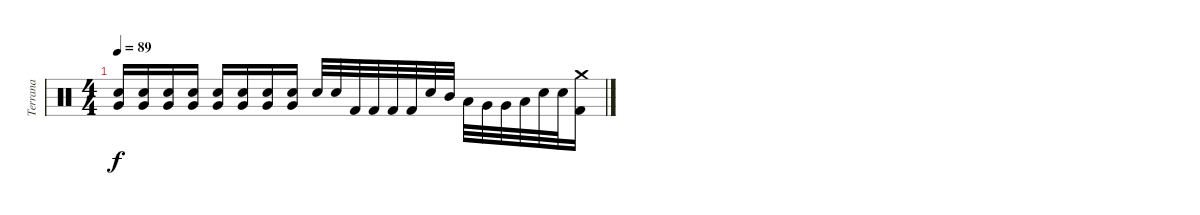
\track ("Terrana" "Terrana") {instrument percussion}
\staff {score}
\articulation defaults
\ts (4 4)
\tempo 89
\clef neutral
\ks c
("Electric Snare (hit)" "Very Low Tom (hit)").16{dy f} ("Electric Snare (hit)" "Very Low Tom (hit)").16 ("Electric Snare (hit)" "Very Low Tom (hit)").16 ("Electric Snare (hit)" "Very Low Tom (hit)").16 ("Electric Snare (hit)" "Very Low Tom (hit)").16 ("Electric Snare (hit)" "Very Low Tom (hit)").16 ("Electric Snare (hit)" "Very Low Tom (hit)").16 ("Electric Snare (hit)" "Very Low Tom (hit)").16 "Electric Snare (hit)".32 "Electric Snare (hit)".32 "Kick (hit) 2".32 "Kick (hit) 2".32 "Kick (hit) 2".32 "Kick (hit) 2".32 "Electric Snare (hit)".32 "Mid Tom (hit)".32 "Low Tom (hit)".32 "Very Low Tom (hit)".32 "Very Low Tom (hit)".32 "Low Floor Tom (hit)".32 "Electric Snare (hit)".32 "Electric Snare (hit)".32 ("Crash medium (hit)" "Kick (hit) 2").16
